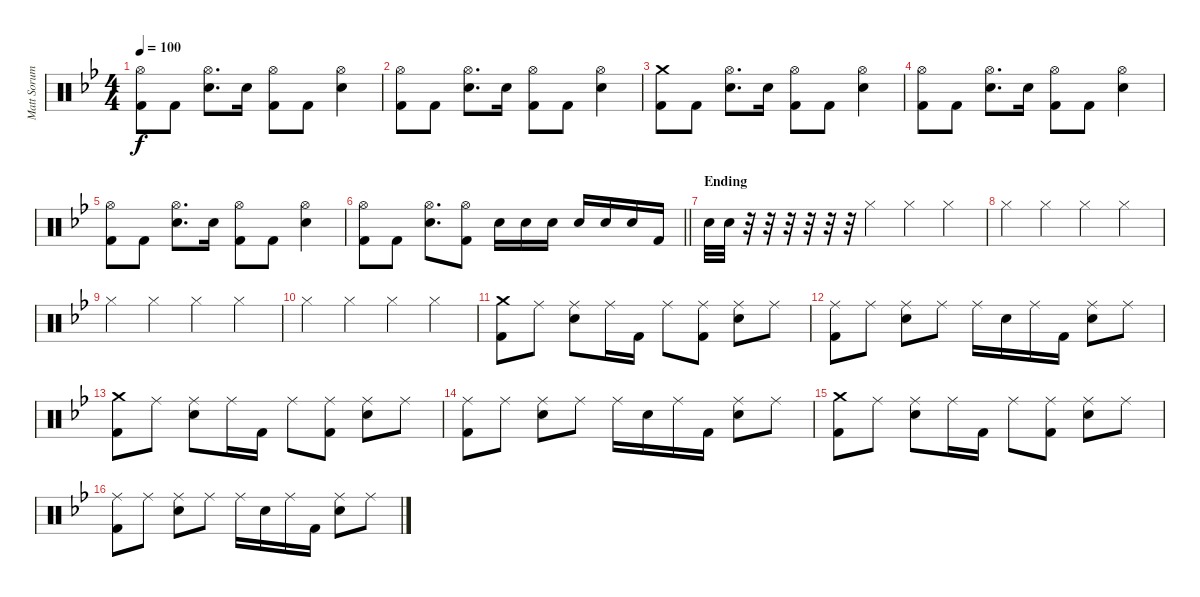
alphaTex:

\track ("Matt Sorum" "Matt Sorum") {instrument percussion}
\staff {score}
\articulation defaults
\ts (4 4)
\tempo 100
\clef neutral
\ks bb
("Hi-Hat (open)" "Kick (hit) 2").8{dy f} "Kick (hit) 2".8 ("Hi-Hat (open)" "Electric Snare (hit)").8{d} "Electric Snare (hit)".16 ("Hi-Hat (open)" "Kick (hit) 2").8 "Kick (hit) 2".8 ("Hi-Hat (open)" "Electric Snare (hit)").4 |
("Hi-Hat (open)" "Kick (hit) 2").8 "Kick (hit) 2".8 ("Hi-Hat (open)" "Electric Snare (hit)").8{d} "Electric Snare (hit)".16 ("Hi-Hat (open)" "Kick (hit) 2").8 "Kick (hit) 2".8 ("Hi-Hat (open)" "Electric Snare (hit)").4 |
("Crash medium (hit)" "Kick (hit) 2").8 "Kick (hit) 2".8 ("Hi-Hat (open)" "Electric Snare (hit)").8{d} "Electric Snare (hit)".16 ("Hi-Hat (open)" "Kick (hit) 2").8 "Kick (hit) 2".8 ("Hi-Hat (open)" "Electric Snare (hit)").4 |
("Hi-Hat (open)" "Kick (hit) 2").8 "Kick (hit) 2".8 ("Hi-Hat (open)" "Electric Snare (hit)").8{d} "Electric Snare (hit)".16 ("Hi-Hat (open)" "Kick (hit) 2").8 "Kick (hit) 2".8 ("Hi-Hat (open)" "Electric Snare (hit)").4 |
("Hi-Hat (open)" "Kick (hit) 2").8 "Kick (hit) 2".8 ("Hi-Hat (open)" "Electric Snare (hit)").8{d} "Electric Snare (hit)".16 ("Hi-Hat (open)" "Kick (hit) 2").8 "Kick (hit) 2".8 ("Hi-Hat (open)" "Electric Snare (hit)").4 |
\barLineRight lightlight
("Hi-Hat (open)" "Kick (hit) 2").8 "Kick (hit) 2".8 ("Hi-Hat (open)" "Electric Snare (hit)").8{d} ("Hi-Hat (open)" "Kick (hit) 2").8 "Electric Snare (hit)".16 "Electric Snare (hit)".16 "Electric Snare (hit)".16 "Electric Snare (hit)".16 "Electric Snare (hit)".16 "Electric Snare (hit)".16 "Kick (hit) 2".16 |
\section ("" "Ending")
"Electric Snare (hit)".32 "Electric Snare (hit)".32 r.32 r.32 r.32 r.32 r.32 r.32 "Hi-Hat (closed)".4 "Hi-Hat (closed)".4 "Hi-Hat (closed)".4 |
"Hi-Hat (closed)".4 "Hi-Hat (closed)".4 "Hi-Hat (closed)".4 "Hi-Hat (closed)".4 |
"Hi-Hat (closed)".4 "Hi-Hat (closed)".4 "Hi-Hat (closed)".4 "Hi-Hat (closed)".4 |
"Hi-Hat (closed)".4 "Hi-Hat (closed)".4 "Hi-Hat (closed)".4 "Hi-Hat (closed)".4 |
("Crash medium (hit)" "Kick (hit) 2").8 "Ride (middle)".8 ("Ride (middle)" "Electric Snare (hit)").8 "Ride (middle)".16 "Kick (hit) 2".16 "Ride (middle)".8 ("Ride (middle)" "Kick (hit) 2").8 ("Ride (middle)" "Electric Snare (hit)").8 "Ride (middle)".8 |
("Ride (middle)" "Kick (hit) 2").8 "Ride (middle)".8 ("Ride (middle)" "Electric Snare (hit)").8 "Ride (middle)".8 "Ride (middle)".16 "Electric Snare (hit)".16 "Ride (middle)".16 "Kick (hit) 2".16 ("Ride (middle)" "Electric Snare (hit)").8 "Ride (middle)".8 |
("Crash medium (hit)" "Kick (hit) 2").8 "Ride (middle)".8 ("Ride (middle)" "Electric Snare (hit)").8 "Ride (middle)".16 "Kick (hit) 2".16 "Ride (middle)".8 ("Ride (middle)" "Kick (hit) 2").8 ("Ride (middle)" "Electric Snare (hit)").8 "Ride (middle)".8 |
("Ride (middle)" "Kick (hit) 2").8 "Ride (middle)".8 ("Ride (middle)" "Electric Snare (hit)").8 "Ride (middle)".8 "Ride (middle)".16 "Electric Snare (hit)".16 "Ride (middle)".16 "Kick (hit) 2".16 ("Ride (middle)" "Electric Snare (hit)").8 "Ride (middle)".8 |
("Crash medium (hit)" "Kick (hit) 2").8 "Ride (middle)".8 ("Ride (middle)" "Electric Snare (hit)").8 "Ride (middle)".16 "Kick (hit) 2".16 "Ride (middle)".8 ("Ride (middle)" "Kick (hit) 2").8 ("Ride (middle)" "Electric Snare (hit)").8 "Ride (middle)".8 |
("Ride (middle)" "Kick (hit) 2").8 "Ride (middle)".8 ("Ride (middle)" "Electric Snare (hit)").8 "Ride (middle)".8 "Ride (middle)".16 "Electric Snare (hit)".16 "Ride (middle)".16 "Kick (hit) 2".16 ("Ride (middle)" "Electric Snare (hit)").8 "Ride (middle)".8
